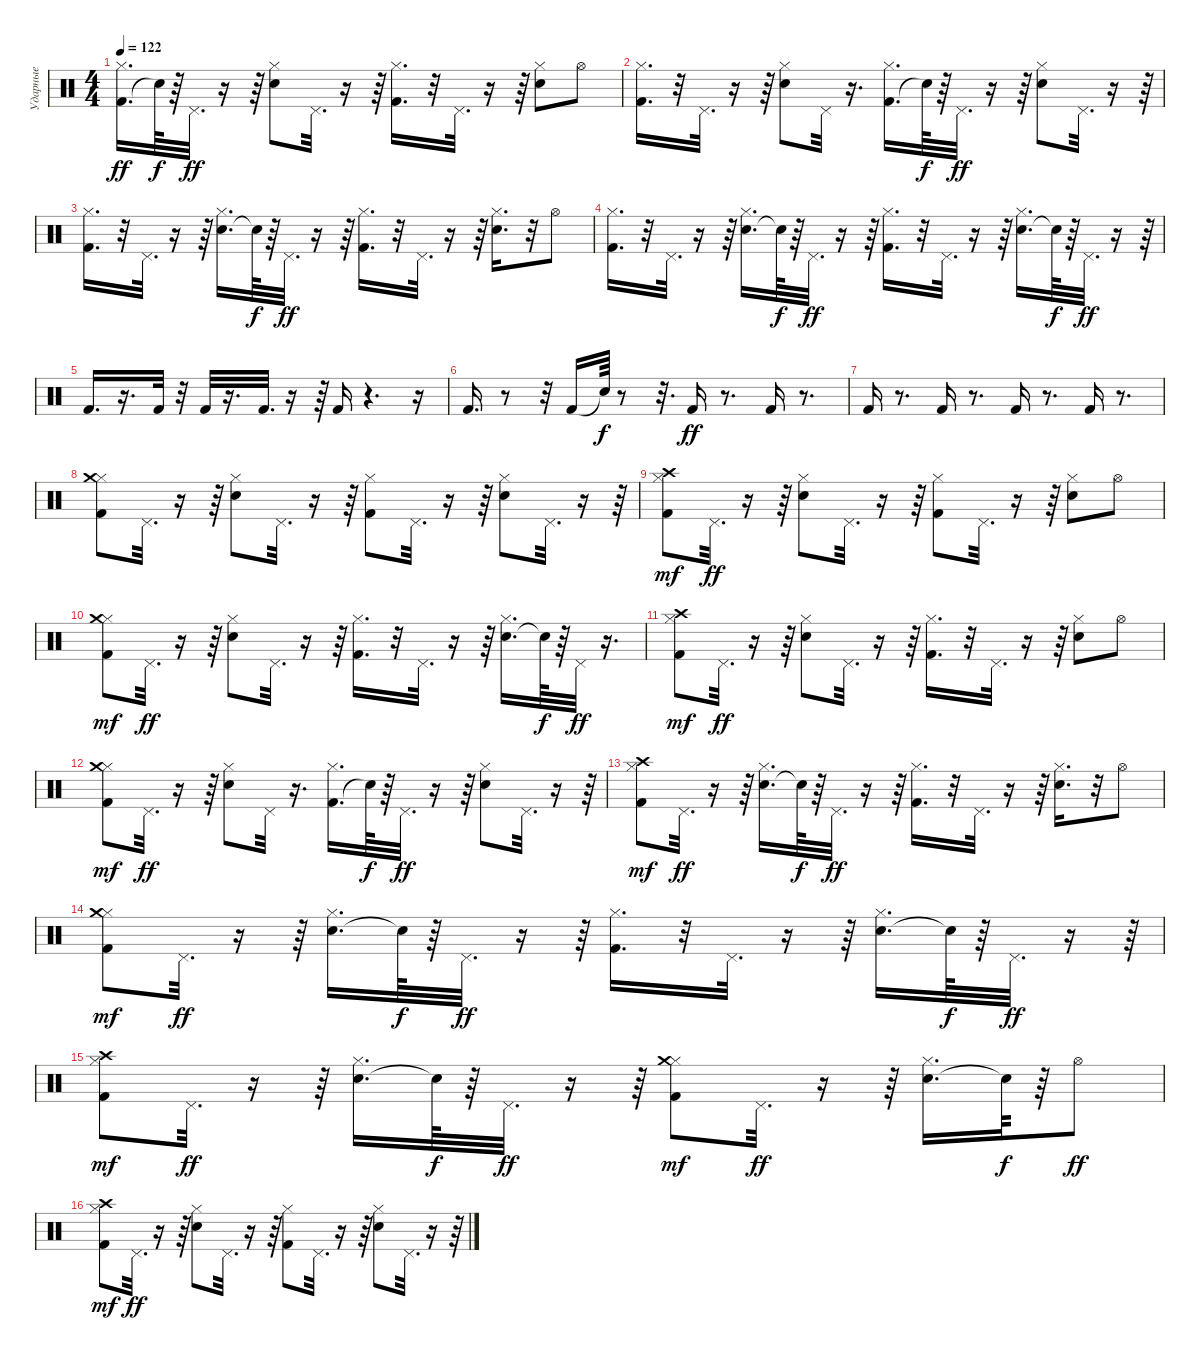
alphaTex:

\track ("Ударные" "Ударные") {instrument percussion}
\staff {score}
\articulation defaults
\ts (4 4)
\tempo 122
\clef neutral
\ks c
("Kick (hit) 2" "Hi-Hat (closed)").16{d dy ff} "Snare (hit)"{t}.64{dy f} r.64 "Pedal Hi-Hat (hit)".32{d dy ff} r.16 r.64 ("Snare (hit) 2" "Hi-Hat (closed)").8 "Pedal Hi-Hat (hit)".32{d} r.16 r.64 ("Kick (hit) 2" "Hi-Hat (closed)").16{d} r.32 "Pedal Hi-Hat (hit)".32{d} r.16 r.64 ("Snare (hit) 2" "Hi-Hat (closed)").8 "Hi-Hat (open)".8 |
("Kick (hit) 2" "Hi-Hat (closed)").16{d} r.32 "Pedal Hi-Hat (hit)".32{d} r.16 r.64 ("Snare (hit) 2" "Hi-Hat (closed)").8 "Pedal Hi-Hat (hit)".32 r.16{d} ("Kick (hit) 2" "Hi-Hat (closed)").16{d} "Snare (hit)"{t}.64{dy f} r.64 "Pedal Hi-Hat (hit)".32{d dy ff} r.16 r.64 ("Snare (hit) 2" "Hi-Hat (closed)").8 "Pedal Hi-Hat (hit)".32{d} r.16 r.64 |
("Kick (hit) 2" "Hi-Hat (closed)").16{d} r.32 "Pedal Hi-Hat (hit)".32{d} r.16 r.64 ("Snare (hit) 2" "Hi-Hat (closed)").16{d} "Snare (hit)"{t}.64{dy f} r.64 "Pedal Hi-Hat (hit)".32{d dy ff} r.16 r.64 ("Kick (hit) 2" "Hi-Hat (closed)").16{d} r.32 "Pedal Hi-Hat (hit)".32{d} r.16 r.64 ("Snare (hit) 2" "Hi-Hat (closed)").16{d} r.32 "Hi-Hat (open)".8 |
("Kick (hit) 2" "Hi-Hat (closed)").16{d} r.32 "Pedal Hi-Hat (hit)".32{d} r.16 r.64 ("Snare (hit) 2" "Hi-Hat (closed)").16{d} "Snare (hit)"{t}.64{dy f} r.64 "Pedal Hi-Hat (hit)".32{d dy ff} r.16 r.64 ("Kick (hit) 2" "Hi-Hat (closed)").16{d} r.32 "Pedal Hi-Hat (hit)".32{d} r.16 r.64 ("Snare (hit) 2" "Hi-Hat (closed)").16{d} "Snare (hit)"{t}.64{dy f} r.64 "Pedal Hi-Hat (hit)".32{d dy ff} r.16 r.64 |
"Kick (hit) 2".16{d} r.16{d} "Kick (hit) 2".32 r.32 "Kick (hit) 2".32 r.16{d} "Kick (hit) 2".32{d} r.16 r.64 "Kick (hit) 2".16 r.4{d} r.16 |
"Kick (hit) 2".16{d} r.8 r.32 "Kick (hit) 2".16 "Snare (hit)"{t}.64{dy f} r.8 r.32{d} "Kick (hit) 2".16{dy ff} r.8{d} "Kick (hit) 2".16 r.8{d} |
"Kick (hit) 2".16 r.8{d} "Kick (hit) 2".16 r.8{d} "Kick (hit) 2".16 r.8{d} "Kick (hit) 2".16 r.8{d} |
("Kick (hit) 2" "Hi-Hat (closed)" "Crash medium (hit)").8 "Pedal Hi-Hat (hit)".32{d} r.16 r.64 ("Snare (hit) 2" "Hi-Hat (closed)").8 "Pedal Hi-Hat (hit)".32{d} r.16 r.64 ("Kick (hit) 2" "Hi-Hat (closed)").8 "Pedal Hi-Hat (hit)".32{d} r.16 r.64 ("Snare (hit) 2" "Hi-Hat (closed)").8 "Pedal Hi-Hat (hit)".32{d} r.16 r.64 |
("Kick (hit) 2" "Hi-Hat (closed)" "Crash high (hit)").8{dy mf} "Pedal Hi-Hat (hit)".32{d dy ff} r.16 r.64 ("Snare (hit) 2" "Hi-Hat (closed)").8 "Pedal Hi-Hat (hit)".32{d} r.16 r.64 ("Kick (hit) 2" "Hi-Hat (closed)").8 "Pedal Hi-Hat (hit)".32{d} r.16 r.64 ("Snare (hit) 2" "Hi-Hat (closed)").8 "Hi-Hat (open)".8 |
("Kick (hit) 2" "Hi-Hat (closed)" "Crash medium (hit)").8{dy mf} "Pedal Hi-Hat (hit)".32{d dy ff} r.16 r.64 ("Snare (hit) 2" "Hi-Hat (closed)").8 "Pedal Hi-Hat (hit)".32{d} r.16 r.64 ("Kick (hit) 2" "Hi-Hat (closed)").16{d} r.32 "Pedal Hi-Hat (hit)".32{d} r.16 r.64 ("Snare (hit) 2" "Hi-Hat (closed)").16{d} "Snare (hit)"{t}.64{dy f} r.64 "Pedal Hi-Hat (hit)".32{dy ff} r.16{d} |
("Kick (hit) 2" "Hi-Hat (closed)" "Crash high (hit)").8{dy mf} "Pedal Hi-Hat (hit)".32{d dy ff} r.16 r.64 ("Snare (hit) 2" "Hi-Hat (closed)").8 "Pedal Hi-Hat (hit)".32{d} r.16 r.64 ("Kick (hit) 2" "Hi-Hat (closed)").16{d} r.32 "Pedal Hi-Hat (hit)".32{d} r.16 r.64 ("Snare (hit) 2" "Hi-Hat (closed)").8 "Hi-Hat (open)".8 |
("Kick (hit) 2" "Hi-Hat (closed)" "Crash medium (hit)").8{dy mf} "Pedal Hi-Hat (hit)".32{d dy ff} r.16 r.64 ("Snare (hit) 2" "Hi-Hat (closed)").8 "Pedal Hi-Hat (hit)".32 r.16{d} ("Kick (hit) 2" "Hi-Hat (closed)").16{d} "Snare (hit)"{t}.64{dy f} r.64 "Pedal Hi-Hat (hit)".32{d dy ff} r.16 r.64 ("Snare (hit) 2" "Hi-Hat (closed)").8 "Pedal Hi-Hat (hit)".32{d} r.16 r.64 |
("Kick (hit) 2" "Hi-Hat (closed)" "Crash high (hit)").8{dy mf} "Pedal Hi-Hat (hit)".32{d dy ff} r.16 r.64 ("Snare (hit) 2" "Hi-Hat (closed)").16{d} "Snare (hit)"{t}.64{dy f} r.64 "Pedal Hi-Hat (hit)".32{d dy ff} r.16 r.64 ("Kick (hit) 2" "Hi-Hat (closed)").16{d} r.32 "Pedal Hi-Hat (hit)".32{d} r.16 r.64 ("Snare (hit) 2" "Hi-Hat (closed)").16{d} r.32 "Hi-Hat (open)".8 |
("Kick (hit) 2" "Hi-Hat (closed)" "Crash medium (hit)").8{dy mf} "Pedal Hi-Hat (hit)".32{d dy ff} r.16 r.64 ("Snare (hit) 2" "Hi-Hat (closed)").16{d} "Snare (hit)"{t}.64{dy f} r.64 "Pedal Hi-Hat (hit)".32{d dy ff} r.16 r.64 ("Kick (hit) 2" "Hi-Hat (closed)").16{d} r.32 "Pedal Hi-Hat (hit)".32{d} r.16 r.64 ("Snare (hit) 2" "Hi-Hat (closed)").16{d} "Snare (hit)"{t}.64{dy f} r.64 "Pedal Hi-Hat (hit)".32{d dy ff} r.16 r.64 |
("Kick (hit) 2" "Hi-Hat (closed)" "Crash high (hit)").8{dy mf} "Pedal Hi-Hat (hit)".32{d dy ff} r.16 r.64 ("Snare (hit) 2" "Hi-Hat (closed)").16{d} "Snare (hit)"{t}.64{dy f} r.64 "Pedal Hi-Hat (hit)".32{d dy ff} r.16 r.64 ("Kick (hit) 2" "Hi-Hat (closed)" "Crash medium (hit)").8{dy mf} "Pedal Hi-Hat (hit)".32{d dy ff} r.16 r.64 ("Snare (hit) 2" "Hi-Hat (closed)").16{d} "Snare (hit)"{t}.64{dy f} r.64 "Hi-Hat (open)".8{dy ff} |
("Kick (hit) 2" "Hi-Hat (closed)" "Crash high (hit)").8{dy mf} "Pedal Hi-Hat (hit)".32{d dy ff} r.16 r.64 ("Snare (hit) 2" "Hi-Hat (closed)").8 "Pedal Hi-Hat (hit)".32{d} r.16 r.64 ("Kick (hit) 2" "Hi-Hat (closed)").8 "Pedal Hi-Hat (hit)".32{d} r.16 r.64 ("Snare (hit) 2" "Hi-Hat (closed)").8 "Pedal Hi-Hat (hit)".32{d} r.16 r.64
